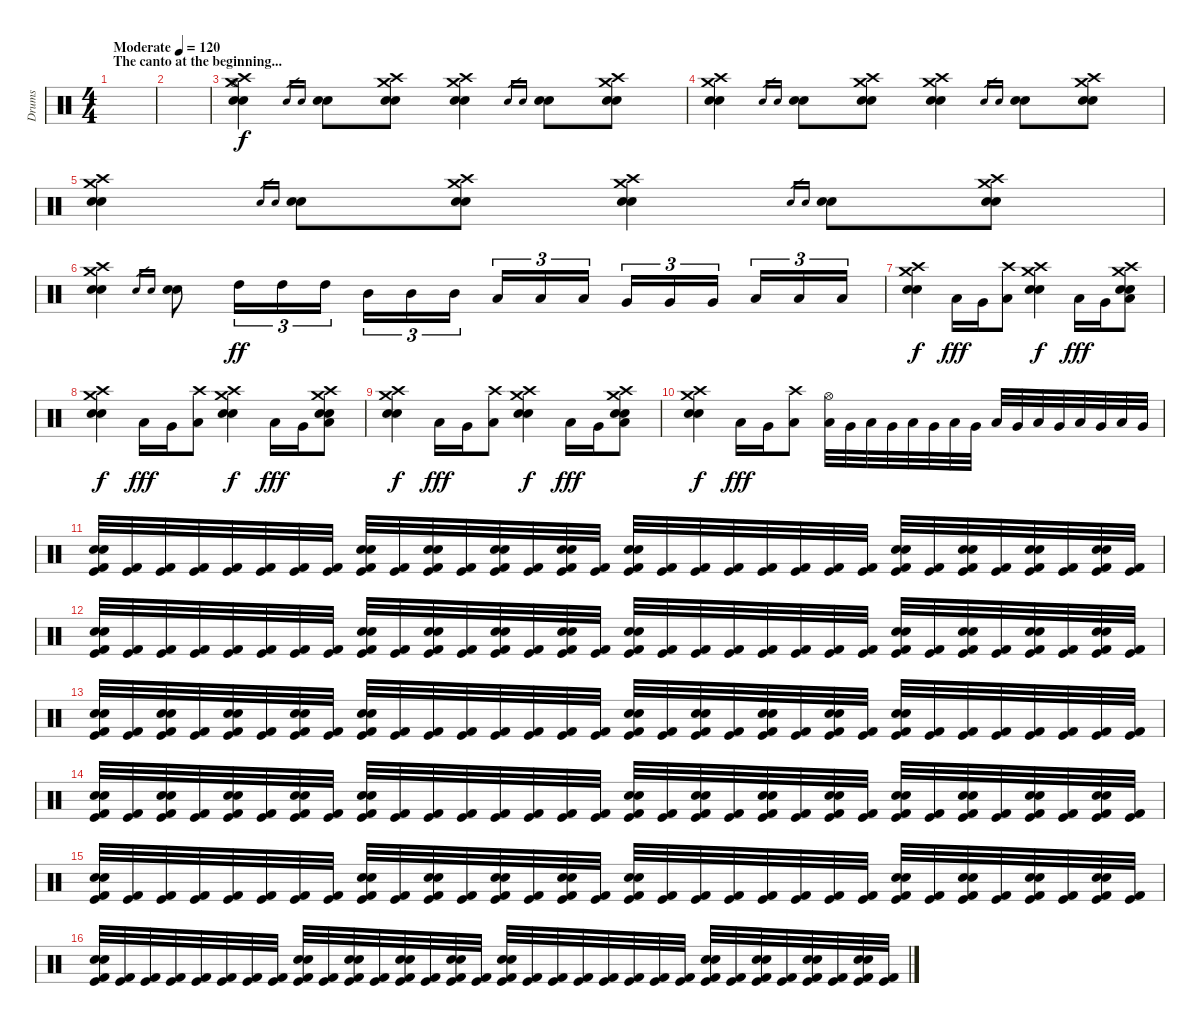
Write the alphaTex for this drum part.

\track ("Drums" "Drums") {instrument percussion}
\staff {score}
\articulation defaults
\ts (4 4)
\section ("" "The canto at the beginning...")
\tempo (120 "Moderate")
\clef neutral
\ks c
|
|
("Crash high (hit)" "Crash medium (hit)" "Electric Snare (hit)" "Snare (hit) 2" "Hi-Hat (open)").4 "Snare (hit) 2".16{gr dy f} "Electric Snare (hit)".16{gr} ("Snare (hit) 2" "Electric Snare (hit)").8 ("Crash high (hit)" "Crash medium (hit)" "Electric Snare (hit)" "Snare (hit) 2").8 ("Crash high (hit)" "Crash medium (hit)" "Electric Snare (hit)" "Snare (hit) 2").4 "Snare (hit) 2".16{gr} "Electric Snare (hit)".16{gr} ("Snare (hit) 2" "Electric Snare (hit)").8 ("Crash high (hit)" "Crash medium (hit)" "Electric Snare (hit)" "Snare (hit) 2").8 |
("Crash high (hit)" "Crash medium (hit)" "Electric Snare (hit)" "Snare (hit) 2").4 "Snare (hit) 2".16{gr} "Electric Snare (hit)".16{gr} ("Snare (hit) 2" "Electric Snare (hit)").8 ("Crash high (hit)" "Crash medium (hit)" "Electric Snare (hit)" "Snare (hit) 2").8 ("Crash high (hit)" "Crash medium (hit)" "Electric Snare (hit)" "Snare (hit) 2").4 "Snare (hit) 2".16{gr} "Electric Snare (hit)".16{gr} ("Snare (hit) 2" "Electric Snare (hit)").8 ("Crash high (hit)" "Crash medium (hit)" "Electric Snare (hit)" "Snare (hit) 2").8 |
("Crash high (hit)" "Crash medium (hit)" "Electric Snare (hit)" "Snare (hit) 2").4 "Snare (hit) 2".16{gr} "Electric Snare (hit)".16{gr} ("Snare (hit) 2" "Electric Snare (hit)").8 ("Crash high (hit)" "Crash medium (hit)" "Electric Snare (hit)" "Snare (hit) 2").8 ("Crash high (hit)" "Crash medium (hit)" "Electric Snare (hit)" "Snare (hit) 2").4 "Snare (hit) 2".16{gr} "Electric Snare (hit)".16{gr} ("Snare (hit) 2" "Electric Snare (hit)").8 ("Crash high (hit)" "Crash medium (hit)" "Electric Snare (hit)" "Snare (hit) 2").8 |
("Crash high (hit)" "Crash medium (hit)" "Electric Snare (hit)" "Snare (hit) 2").4 "Snare (hit) 2".16{gr} "Electric Snare (hit)".16{gr} ("Snare (hit) 2" "Electric Snare (hit)").8 "High Tom (hit)".16{tu (3 2) dy ff} "High Tom (hit)".16{tu (3 2)} "High Tom (hit)".16{tu (3 2)} "Mid Tom (hit)".16{tu (3 2)} "Mid Tom (hit)".16{tu (3 2)} "Mid Tom (hit)".16{tu (3 2) beam splitsecondary} "Low Tom (hit)".16{tu (3 2)} "Low Tom (hit)".16{tu (3 2)} "Low Tom (hit)".16{tu (3 2)} "Very Low Tom (hit)".16{tu (3 2)} "Very Low Tom (hit)".16{tu (3 2)} "Very Low Tom (hit)".16{tu (3 2) beam splitsecondary} "Low Floor Tom (hit)".16{tu (3 2)} "Low Floor Tom (hit)".16{tu (3 2)} "Low Floor Tom (hit)".16{tu (3 2)} |
("Crash high (hit)" "Crash medium (hit)" "Electric Snare (hit)" "Snare (hit) 2").4{dy f} "Low Tom (hit)".16{dy fff} "Very Low Tom (hit)".16 ("Crash high (hit)" "Low Floor Tom (hit)").8 ("Crash high (hit)" "Crash medium (hit)" "Snare (hit) 2" "Electric Snare (hit)").4{dy f} "Low Tom (hit)".16{dy fff} "Very Low Tom (hit)".16 ("Crash high (hit)" "Crash medium (hit)" "Snare (hit) 2" "Electric Snare (hit)" "Low Floor Tom (hit)").8 |
("Crash high (hit)" "Crash medium (hit)" "Electric Snare (hit)" "Snare (hit) 2").4{dy f} "Low Tom (hit)".16{dy fff} "Very Low Tom (hit)".16 ("Crash high (hit)" "Low Floor Tom (hit)").8 ("Crash high (hit)" "Crash medium (hit)" "Snare (hit) 2" "Electric Snare (hit)").4{dy f} "Low Tom (hit)".16{dy fff} "Very Low Tom (hit)".16 ("Crash high (hit)" "Crash medium (hit)" "Snare (hit) 2" "Electric Snare (hit)" "Low Floor Tom (hit)").8 |
("Crash high (hit)" "Crash medium (hit)" "Electric Snare (hit)" "Snare (hit) 2").4{dy f} "Low Tom (hit)".16{dy fff} "Very Low Tom (hit)".16 ("Crash high (hit)" "Low Floor Tom (hit)").8 ("Crash high (hit)" "Crash medium (hit)" "Snare (hit) 2" "Electric Snare (hit)").4{dy f} "Low Tom (hit)".16{dy fff} "Very Low Tom (hit)".16 ("Crash high (hit)" "Crash medium (hit)" "Snare (hit) 2" "Electric Snare (hit)" "Low Floor Tom (hit)").8 |
("Crash high (hit)" "Crash medium (hit)" "Electric Snare (hit)" "Snare (hit) 2").4{dy f} "Low Tom (hit)".16{dy fff} "Very Low Tom (hit)".16 ("Crash high (hit)" "Low Floor Tom (hit)").8 ("Hi-Hat (open)" "Low Floor Tom (hit)").32 "Very Low Tom (hit)".32 "Low Tom (hit)".32 "Very Low Tom (hit)".32 "Low Floor Tom (hit)".32 "Very Low Tom (hit)".32 "Low Tom (hit)".32 "Very Low Tom (hit)".32 "Low Floor Tom (hit)".32 "Very Low Tom (hit)".32 "Low Tom (hit)".32 "Very Low Tom (hit)".32 "Low Floor Tom (hit)".32 "Very Low Tom (hit)".32 "Low Tom (hit)".32 "Very Low Tom (hit)".32 |
("Electric Snare (hit)" "Snare (hit) 2" "Kick (hit)" "Kick (hit) 2").32 ("Kick (hit)" "Kick (hit) 2").32 ("Kick (hit)" "Kick (hit) 2").32 ("Kick (hit)" "Kick (hit) 2").32 ("Kick (hit)" "Kick (hit) 2").32 ("Kick (hit)" "Kick (hit) 2").32 ("Kick (hit)" "Kick (hit) 2").32 ("Kick (hit)" "Kick (hit) 2").32 ("Electric Snare (hit)" "Snare (hit) 2" "Kick (hit)" "Kick (hit) 2").32 ("Kick (hit)" "Kick (hit) 2").32 ("Snare (hit) 2" "Electric Snare (hit)" "Kick (hit)" "Kick (hit) 2").32 ("Kick (hit)" "Kick (hit) 2").32 ("Snare (hit) 2" "Electric Snare (hit)" "Kick (hit)" "Kick (hit) 2").32 ("Kick (hit)" "Kick (hit) 2").32 ("Snare (hit) 2" "Electric Snare (hit)" "Kick (hit)" "Kick (hit) 2").32 ("Kick (hit)" "Kick (hit) 2").32 ("Electric Snare (hit)" "Snare (hit) 2" "Kick (hit)" "Kick (hit) 2").32 ("Kick (hit)" "Kick (hit) 2").32 ("Kick (hit)" "Kick (hit) 2").32 ("Kick (hit)" "Kick (hit) 2").32 ("Kick (hit)" "Kick (hit) 2").32 ("Kick (hit)" "Kick (hit) 2").32 ("Kick (hit)" "Kick (hit) 2").32 ("Kick (hit)" "Kick (hit) 2").32 ("Snare (hit) 2" "Electric Snare (hit)" "Kick (hit)" "Kick (hit) 2").32 ("Kick (hit)" "Kick (hit) 2").32 ("Snare (hit) 2" "Electric Snare (hit)" "Kick (hit)" "Kick (hit) 2").32 ("Kick (hit)" "Kick (hit) 2").32 ("Snare (hit) 2" "Electric Snare (hit)" "Kick (hit)" "Kick (hit) 2").32 ("Kick (hit)" "Kick (hit) 2").32 ("Snare (hit) 2" "Electric Snare (hit)" "Kick (hit)" "Kick (hit) 2").32 ("Kick (hit)" "Kick (hit) 2").32 |
("Electric Snare (hit)" "Snare (hit) 2" "Kick (hit)" "Kick (hit) 2").32 ("Kick (hit)" "Kick (hit) 2").32 ("Kick (hit)" "Kick (hit) 2").32 ("Kick (hit)" "Kick (hit) 2").32 ("Kick (hit)" "Kick (hit) 2").32 ("Kick (hit)" "Kick (hit) 2").32 ("Kick (hit)" "Kick (hit) 2").32 ("Kick (hit)" "Kick (hit) 2").32 ("Electric Snare (hit)" "Snare (hit) 2" "Kick (hit)" "Kick (hit) 2").32 ("Kick (hit)" "Kick (hit) 2").32 ("Snare (hit) 2" "Electric Snare (hit)" "Kick (hit)" "Kick (hit) 2").32 ("Kick (hit)" "Kick (hit) 2").32 ("Snare (hit) 2" "Electric Snare (hit)" "Kick (hit)" "Kick (hit) 2").32 ("Kick (hit)" "Kick (hit) 2").32 ("Snare (hit) 2" "Electric Snare (hit)" "Kick (hit)" "Kick (hit) 2").32 ("Kick (hit)" "Kick (hit) 2").32 ("Electric Snare (hit)" "Snare (hit) 2" "Kick (hit)" "Kick (hit) 2").32 ("Kick (hit)" "Kick (hit) 2").32 ("Kick (hit)" "Kick (hit) 2").32 ("Kick (hit)" "Kick (hit) 2").32 ("Kick (hit)" "Kick (hit) 2").32 ("Kick (hit)" "Kick (hit) 2").32 ("Kick (hit)" "Kick (hit) 2").32 ("Kick (hit)" "Kick (hit) 2").32 ("Snare (hit) 2" "Electric Snare (hit)" "Kick (hit)" "Kick (hit) 2").32 ("Kick (hit)" "Kick (hit) 2").32 ("Snare (hit) 2" "Electric Snare (hit)" "Kick (hit)" "Kick (hit) 2").32 ("Kick (hit)" "Kick (hit) 2").32 ("Snare (hit) 2" "Electric Snare (hit)" "Kick (hit)" "Kick (hit) 2").32 ("Kick (hit)" "Kick (hit) 2").32 ("Snare (hit) 2" "Electric Snare (hit)" "Kick (hit)" "Kick (hit) 2").32 ("Kick (hit)" "Kick (hit) 2").32 |
("Electric Snare (hit)" "Snare (hit) 2" "Kick (hit)" "Kick (hit) 2").32 ("Kick (hit)" "Kick (hit) 2").32 ("Snare (hit) 2" "Electric Snare (hit)" "Kick (hit)" "Kick (hit) 2").32 ("Kick (hit)" "Kick (hit) 2").32 ("Snare (hit) 2" "Electric Snare (hit)" "Kick (hit)" "Kick (hit) 2").32 ("Kick (hit)" "Kick (hit) 2").32 ("Snare (hit) 2" "Electric Snare (hit)" "Kick (hit)" "Kick (hit) 2").32 ("Kick (hit)" "Kick (hit) 2").32 ("Snare (hit) 2" "Electric Snare (hit)" "Kick (hit)" "Kick (hit) 2").32 ("Kick (hit)" "Kick (hit) 2").32 ("Kick (hit)" "Kick (hit) 2").32 ("Kick (hit)" "Kick (hit) 2").32 ("Kick (hit)" "Kick (hit) 2").32 ("Kick (hit)" "Kick (hit) 2").32 ("Kick (hit)" "Kick (hit) 2").32 ("Kick (hit)" "Kick (hit) 2").32 ("Snare (hit) 2" "Electric Snare (hit)" "Kick (hit)" "Kick (hit) 2").32 ("Kick (hit)" "Kick (hit) 2").32 ("Snare (hit) 2" "Electric Snare (hit)" "Kick (hit)" "Kick (hit) 2").32 ("Kick (hit)" "Kick (hit) 2").32 ("Snare (hit) 2" "Electric Snare (hit)" "Kick (hit)" "Kick (hit) 2").32 ("Kick (hit)" "Kick (hit) 2").32 ("Snare (hit) 2" "Electric Snare (hit)" "Kick (hit)" "Kick (hit) 2").32 ("Kick (hit)" "Kick (hit) 2").32 ("Snare (hit) 2" "Electric Snare (hit)" "Kick (hit)" "Kick (hit) 2").32 ("Kick (hit)" "Kick (hit) 2").32 ("Kick (hit)" "Kick (hit) 2").32 ("Kick (hit)" "Kick (hit) 2").32 ("Kick (hit)" "Kick (hit) 2").32 ("Kick (hit)" "Kick (hit) 2").32 ("Kick (hit)" "Kick (hit) 2").32 ("Kick (hit)" "Kick (hit) 2").32 |
("Electric Snare (hit)" "Snare (hit) 2" "Kick (hit)" "Kick (hit) 2").32 ("Kick (hit)" "Kick (hit) 2").32 ("Snare (hit) 2" "Electric Snare (hit)" "Kick (hit)" "Kick (hit) 2").32 ("Kick (hit)" "Kick (hit) 2").32 ("Snare (hit) 2" "Electric Snare (hit)" "Kick (hit)" "Kick (hit) 2").32 ("Kick (hit)" "Kick (hit) 2").32 ("Snare (hit) 2" "Electric Snare (hit)" "Kick (hit)" "Kick (hit) 2").32 ("Kick (hit)" "Kick (hit) 2").32 ("Snare (hit) 2" "Electric Snare (hit)" "Kick (hit)" "Kick (hit) 2").32 ("Kick (hit)" "Kick (hit) 2").32 ("Kick (hit)" "Kick (hit) 2").32 ("Kick (hit)" "Kick (hit) 2").32 ("Kick (hit)" "Kick (hit) 2").32 ("Kick (hit)" "Kick (hit) 2").32 ("Kick (hit)" "Kick (hit) 2").32 ("Kick (hit)" "Kick (hit) 2").32 ("Snare (hit) 2" "Electric Snare (hit)" "Kick (hit)" "Kick (hit) 2").32 ("Kick (hit)" "Kick (hit) 2").32 ("Snare (hit) 2" "Electric Snare (hit)" "Kick (hit)" "Kick (hit) 2").32 ("Kick (hit)" "Kick (hit) 2").32 ("Snare (hit) 2" "Electric Snare (hit)" "Kick (hit)" "Kick (hit) 2").32 ("Kick (hit)" "Kick (hit) 2").32 ("Snare (hit) 2" "Electric Snare (hit)" "Kick (hit)" "Kick (hit) 2").32 ("Kick (hit)" "Kick (hit) 2").32 ("Snare (hit) 2" "Electric Snare (hit)" "Kick (hit)" "Kick (hit) 2").32 ("Kick (hit)" "Kick (hit) 2").32 ("Snare (hit) 2" "Electric Snare (hit)" "Kick (hit)" "Kick (hit) 2").32 ("Kick (hit)" "Kick (hit) 2").32 ("Snare (hit) 2" "Electric Snare (hit)" "Kick (hit)" "Kick (hit) 2").32 ("Kick (hit)" "Kick (hit) 2").32 ("Snare (hit) 2" "Electric Snare (hit)" "Kick (hit)" "Kick (hit) 2").32 ("Kick (hit)" "Kick (hit) 2").32 |
("Electric Snare (hit)" "Snare (hit) 2" "Kick (hit)" "Kick (hit) 2").32 ("Kick (hit)" "Kick (hit) 2").32 ("Kick (hit)" "Kick (hit) 2").32 ("Kick (hit)" "Kick (hit) 2").32 ("Kick (hit)" "Kick (hit) 2").32 ("Kick (hit)" "Kick (hit) 2").32 ("Kick (hit)" "Kick (hit) 2").32 ("Kick (hit)" "Kick (hit) 2").32 ("Electric Snare (hit)" "Snare (hit) 2" "Kick (hit)" "Kick (hit) 2").32 ("Kick (hit)" "Kick (hit) 2").32 ("Snare (hit) 2" "Electric Snare (hit)" "Kick (hit)" "Kick (hit) 2").32 ("Kick (hit)" "Kick (hit) 2").32 ("Snare (hit) 2" "Electric Snare (hit)" "Kick (hit)" "Kick (hit) 2").32 ("Kick (hit)" "Kick (hit) 2").32 ("Snare (hit) 2" "Electric Snare (hit)" "Kick (hit)" "Kick (hit) 2").32 ("Kick (hit)" "Kick (hit) 2").32 ("Electric Snare (hit)" "Snare (hit) 2" "Kick (hit)" "Kick (hit) 2").32 ("Kick (hit)" "Kick (hit) 2").32 ("Kick (hit)" "Kick (hit) 2").32 ("Kick (hit)" "Kick (hit) 2").32 ("Kick (hit)" "Kick (hit) 2").32 ("Kick (hit)" "Kick (hit) 2").32 ("Kick (hit)" "Kick (hit) 2").32 ("Kick (hit)" "Kick (hit) 2").32 ("Snare (hit) 2" "Electric Snare (hit)" "Kick (hit)" "Kick (hit) 2").32 ("Kick (hit)" "Kick (hit) 2").32 ("Snare (hit) 2" "Electric Snare (hit)" "Kick (hit)" "Kick (hit) 2").32 ("Kick (hit)" "Kick (hit) 2").32 ("Snare (hit) 2" "Electric Snare (hit)" "Kick (hit)" "Kick (hit) 2").32 ("Kick (hit)" "Kick (hit) 2").32 ("Snare (hit) 2" "Electric Snare (hit)" "Kick (hit)" "Kick (hit) 2").32 ("Kick (hit)" "Kick (hit) 2").32 |
("Electric Snare (hit)" "Snare (hit) 2" "Kick (hit)" "Kick (hit) 2").32 ("Kick (hit)" "Kick (hit) 2").32 ("Kick (hit)" "Kick (hit) 2").32 ("Kick (hit)" "Kick (hit) 2").32 ("Kick (hit)" "Kick (hit) 2").32 ("Kick (hit)" "Kick (hit) 2").32 ("Kick (hit)" "Kick (hit) 2").32 ("Kick (hit)" "Kick (hit) 2").32 ("Electric Snare (hit)" "Snare (hit) 2" "Kick (hit)" "Kick (hit) 2").32 ("Kick (hit)" "Kick (hit) 2").32 ("Snare (hit) 2" "Electric Snare (hit)" "Kick (hit)" "Kick (hit) 2").32 ("Kick (hit)" "Kick (hit) 2").32 ("Snare (hit) 2" "Electric Snare (hit)" "Kick (hit)" "Kick (hit) 2").32 ("Kick (hit)" "Kick (hit) 2").32 ("Snare (hit) 2" "Electric Snare (hit)" "Kick (hit)" "Kick (hit) 2").32 ("Kick (hit)" "Kick (hit) 2").32 ("Electric Snare (hit)" "Snare (hit) 2" "Kick (hit)" "Kick (hit) 2").32 ("Kick (hit)" "Kick (hit) 2").32 ("Kick (hit)" "Kick (hit) 2").32 ("Kick (hit)" "Kick (hit) 2").32 ("Kick (hit)" "Kick (hit) 2").32 ("Kick (hit)" "Kick (hit) 2").32 ("Kick (hit)" "Kick (hit) 2").32 ("Kick (hit)" "Kick (hit) 2").32 ("Snare (hit) 2" "Electric Snare (hit)" "Kick (hit)" "Kick (hit) 2").32 ("Kick (hit)" "Kick (hit) 2").32 ("Snare (hit) 2" "Electric Snare (hit)" "Kick (hit)" "Kick (hit) 2").32 ("Kick (hit)" "Kick (hit) 2").32 ("Snare (hit) 2" "Electric Snare (hit)" "Kick (hit)" "Kick (hit) 2").32 ("Kick (hit)" "Kick (hit) 2").32 ("Snare (hit) 2" "Electric Snare (hit)" "Kick (hit)" "Kick (hit) 2").32 ("Kick (hit)" "Kick (hit) 2").32
